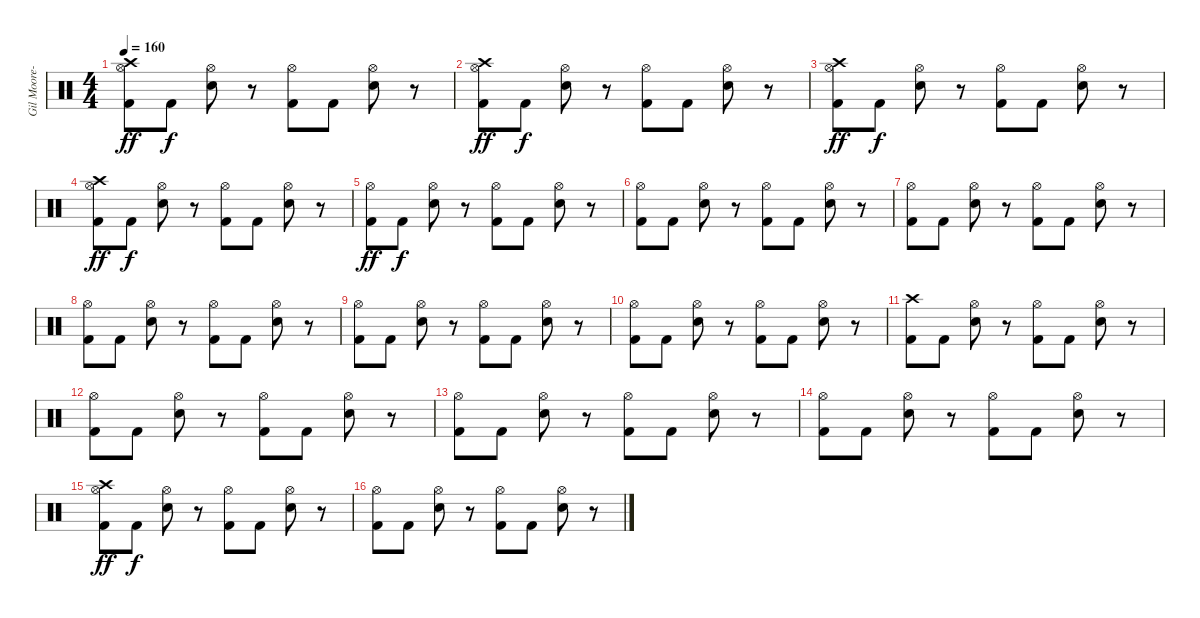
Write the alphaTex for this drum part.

\track ("Gil Moore-Drums n Vocals" "Gil Moore-") {instrument percussion}
\staff {score}
\articulation defaults
\ts (4 4)
\tempo 160
\clef neutral
\ks c
("Kick (hit) 2" "Hi-Hat (open)" "Crash high (hit)").8{dy ff} "Kick (hit) 2".8{dy f} ("Electric Snare (hit)" "Hi-Hat (open)").8 r.8 ("Kick (hit) 2" "Hi-Hat (open)").8 "Kick (hit) 2".8 ("Electric Snare (hit)" "Hi-Hat (open)").8 r.8 |
("Kick (hit) 2" "Hi-Hat (open)" "Crash high (hit)").8{dy ff} "Kick (hit) 2".8{dy f} ("Electric Snare (hit)" "Hi-Hat (open)").8 r.8 ("Kick (hit) 2" "Hi-Hat (open)").8 "Kick (hit) 2".8 ("Electric Snare (hit)" "Hi-Hat (open)").8 r.8 |
("Kick (hit) 2" "Hi-Hat (open)" "Crash high (hit)").8{dy ff} "Kick (hit) 2".8{dy f} ("Electric Snare (hit)" "Hi-Hat (open)").8 r.8 ("Kick (hit) 2" "Hi-Hat (open)").8 "Kick (hit) 2".8 ("Electric Snare (hit)" "Hi-Hat (open)").8 r.8 |
("Kick (hit) 2" "Hi-Hat (open)" "Crash high (hit)").8{dy ff} "Kick (hit) 2".8{dy f} ("Electric Snare (hit)" "Hi-Hat (open)").8 r.8 ("Kick (hit) 2" "Hi-Hat (open)").8 "Kick (hit) 2".8 ("Electric Snare (hit)" "Hi-Hat (open)").8 r.8 |
("Kick (hit) 2" "Hi-Hat (open)").8{dy ff} "Kick (hit) 2".8{dy f} ("Electric Snare (hit)" "Hi-Hat (open)").8 r.8 ("Kick (hit) 2" "Hi-Hat (open)").8 "Kick (hit) 2".8 ("Electric Snare (hit)" "Hi-Hat (open)").8 r.8 |
("Kick (hit) 2" "Hi-Hat (open)").8 "Kick (hit) 2".8 ("Electric Snare (hit)" "Hi-Hat (open)").8 r.8 ("Kick (hit) 2" "Hi-Hat (open)").8 "Kick (hit) 2".8 ("Electric Snare (hit)" "Hi-Hat (open)").8 r.8 |
("Kick (hit) 2" "Hi-Hat (open)").8 "Kick (hit) 2".8 ("Electric Snare (hit)" "Hi-Hat (open)").8 r.8 ("Kick (hit) 2" "Hi-Hat (open)").8 "Kick (hit) 2".8 ("Electric Snare (hit)" "Hi-Hat (open)").8 r.8 |
("Kick (hit) 2" "Hi-Hat (open)").8 "Kick (hit) 2".8 ("Electric Snare (hit)" "Hi-Hat (open)").8 r.8 ("Kick (hit) 2" "Hi-Hat (open)").8 "Kick (hit) 2".8 ("Electric Snare (hit)" "Hi-Hat (open)").8 r.8 |
("Kick (hit) 2" "Hi-Hat (open)").8 "Kick (hit) 2".8 ("Electric Snare (hit)" "Hi-Hat (open)").8 r.8 ("Kick (hit) 2" "Hi-Hat (open)").8 "Kick (hit) 2".8 ("Electric Snare (hit)" "Hi-Hat (open)").8 r.8 |
("Kick (hit) 2" "Hi-Hat (open)").8 "Kick (hit) 2".8 ("Electric Snare (hit)" "Hi-Hat (open)").8 r.8 ("Kick (hit) 2" "Hi-Hat (open)").8 "Kick (hit) 2".8 ("Electric Snare (hit)" "Hi-Hat (open)").8 r.8 |
("Kick (hit) 2" "Crash high (hit)").8 "Kick (hit) 2".8 ("Electric Snare (hit)" "Hi-Hat (open)").8 r.8 ("Kick (hit) 2" "Hi-Hat (open)").8 "Kick (hit) 2".8 ("Electric Snare (hit)" "Hi-Hat (open)").8 r.8 |
("Kick (hit) 2" "Hi-Hat (open)").8 "Kick (hit) 2".8 ("Electric Snare (hit)" "Hi-Hat (open)").8 r.8 ("Kick (hit) 2" "Hi-Hat (open)").8 "Kick (hit) 2".8 ("Electric Snare (hit)" "Hi-Hat (open)").8 r.8 |
("Kick (hit) 2" "Hi-Hat (open)").8 "Kick (hit) 2".8 ("Electric Snare (hit)" "Hi-Hat (open)").8 r.8 ("Kick (hit) 2" "Hi-Hat (open)").8 "Kick (hit) 2".8 ("Electric Snare (hit)" "Hi-Hat (open)").8 r.8 |
("Kick (hit) 2" "Hi-Hat (open)").8 "Kick (hit) 2".8 ("Electric Snare (hit)" "Hi-Hat (open)").8 r.8 ("Kick (hit) 2" "Hi-Hat (open)").8 "Kick (hit) 2".8 ("Electric Snare (hit)" "Hi-Hat (open)").8 r.8 |
("Kick (hit) 2" "Hi-Hat (open)" "Crash high (hit)").8{dy ff} "Kick (hit) 2".8{dy f} ("Electric Snare (hit)" "Hi-Hat (open)").8 r.8 ("Kick (hit) 2" "Hi-Hat (open)").8 "Kick (hit) 2".8 ("Electric Snare (hit)" "Hi-Hat (open)").8 r.8 |
("Kick (hit) 2" "Hi-Hat (open)").8 "Kick (hit) 2".8 ("Electric Snare (hit)" "Hi-Hat (open)").8 r.8 ("Kick (hit) 2" "Hi-Hat (open)").8 "Kick (hit) 2".8 ("Electric Snare (hit)" "Hi-Hat (open)").8 r.8
